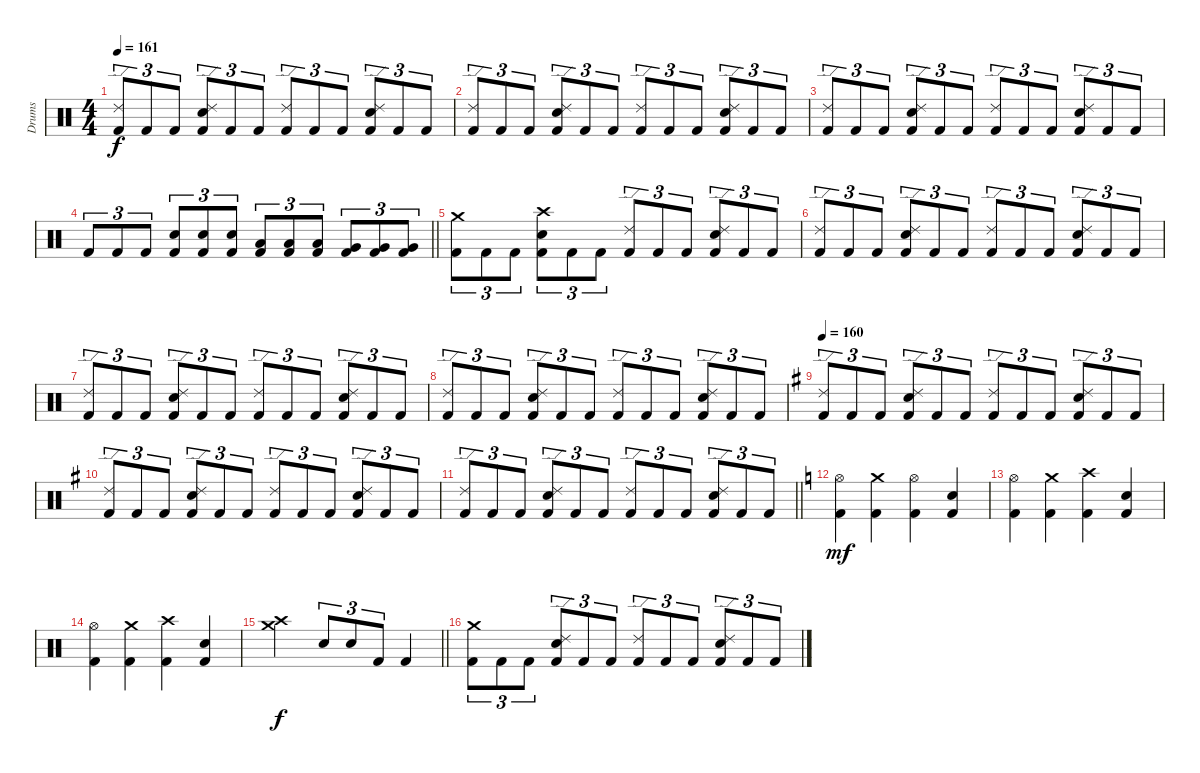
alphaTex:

\track ("Drums" "Drums") {instrument percussion}
\staff {score}
\articulation defaults
\ts (4 4)
\tempo 161
\clef neutral
\ks aminor
("Ride (edge) 2" "Kick (hit) 2").8{tu (3 2) dy f} "Kick (hit) 2".8{tu (3 2)} "Kick (hit) 2".8{tu (3 2)} ("Ride (edge) 2" "Snare (hit) 2" "Kick (hit) 2").8{tu (3 2)} "Kick (hit) 2".8{tu (3 2)} "Kick (hit) 2".8{tu (3 2)} ("Ride (edge) 2" "Kick (hit) 2").8{tu (3 2)} "Kick (hit) 2".8{tu (3 2)} "Kick (hit) 2".8{tu (3 2)} ("Ride (edge) 2" "Snare (hit) 2" "Kick (hit) 2").8{tu (3 2)} "Kick (hit) 2".8{tu (3 2)} "Kick (hit) 2".8{tu (3 2)} |
("Ride (edge) 2" "Kick (hit) 2").8{tu (3 2)} "Kick (hit) 2".8{tu (3 2)} "Kick (hit) 2".8{tu (3 2)} ("Ride (edge) 2" "Snare (hit) 2" "Kick (hit) 2").8{tu (3 2)} "Kick (hit) 2".8{tu (3 2)} "Kick (hit) 2".8{tu (3 2)} ("Ride (edge) 2" "Kick (hit) 2").8{tu (3 2)} "Kick (hit) 2".8{tu (3 2)} "Kick (hit) 2".8{tu (3 2)} ("Ride (edge) 2" "Snare (hit) 2" "Kick (hit) 2").8{tu (3 2)} "Kick (hit) 2".8{tu (3 2)} "Kick (hit) 2".8{tu (3 2)} |
("Ride (edge) 2" "Kick (hit) 2").8{tu (3 2)} "Kick (hit) 2".8{tu (3 2)} "Kick (hit) 2".8{tu (3 2)} ("Ride (edge) 2" "Snare (hit) 2" "Kick (hit) 2").8{tu (3 2)} "Kick (hit) 2".8{tu (3 2)} "Kick (hit) 2".8{tu (3 2)} ("Ride (edge) 2" "Kick (hit) 2").8{tu (3 2)} "Kick (hit) 2".8{tu (3 2)} "Kick (hit) 2".8{tu (3 2)} ("Ride (edge) 2" "Snare (hit) 2" "Kick (hit) 2").8{tu (3 2)} "Kick (hit) 2".8{tu (3 2)} "Kick (hit) 2".8{tu (3 2)} |
\barLineRight lightlight "Kick (hit) 2".8{tu (3 2)} "Kick (hit) 2".8{tu (3 2)} "Kick (hit) 2".8{tu (3 2)}
("Snare (hit) 2" "Kick (hit) 2").8{tu (3 2)} ("Snare (hit) 2" "Kick (hit) 2").8{tu (3 2)} ("Snare (hit) 2" "Kick (hit) 2").8{tu (3 2)} ("Low Tom (hit)" "Kick (hit) 2").8{tu (3 2)} ("Low Tom (hit)" "Kick (hit) 2").8{tu (3 2)} ("Low Tom (hit)" "Kick (hit) 2").8{tu (3 2)} ("Very Low Tom (hit)" "Kick (hit) 2").8{tu (3 2)} ("Very Low Tom (hit)" "Kick (hit) 2").8{tu (3 2)} ("Very Low Tom (hit)" "Kick (hit) 2").8{tu (3 2)} |
\ks c
("Crash medium (hit)" "Kick (hit) 2").8{tu (3 2)} "Kick (hit) 2".8{tu (3 2)} "Kick (hit) 2".8{tu (3 2)} ("Crash high (hit)" "Snare (hit) 2" "Kick (hit) 2").8{tu (3 2)} "Kick (hit) 2".8{tu (3 2)} "Kick (hit) 2".8{tu (3 2)} ("Ride (edge) 2" "Kick (hit) 2").8{tu (3 2)} "Kick (hit) 2".8{tu (3 2)} "Kick (hit) 2".8{tu (3 2)} ("Ride (edge) 2" "Snare (hit) 2" "Kick (hit) 2").8{tu (3 2)} "Kick (hit) 2".8{tu (3 2)} "Kick (hit) 2".8{tu (3 2)} |
("Ride (edge) 2" "Kick (hit) 2").8{tu (3 2)} "Kick (hit) 2".8{tu (3 2)} "Kick (hit) 2".8{tu (3 2)} ("Ride (edge) 2" "Snare (hit) 2" "Kick (hit) 2").8{tu (3 2)} "Kick (hit) 2".8{tu (3 2)} "Kick (hit) 2".8{tu (3 2)} ("Ride (edge) 2" "Kick (hit) 2").8{tu (3 2)} "Kick (hit) 2".8{tu (3 2)} "Kick (hit) 2".8{tu (3 2)} ("Ride (edge) 2" "Snare (hit) 2" "Kick (hit) 2").8{tu (3 2)} "Kick (hit) 2".8{tu (3 2)} "Kick (hit) 2".8{tu (3 2)} |
("Ride (edge) 2" "Kick (hit) 2").8{tu (3 2)} "Kick (hit) 2".8{tu (3 2)} "Kick (hit) 2".8{tu (3 2)} ("Ride (edge) 2" "Snare (hit) 2" "Kick (hit) 2").8{tu (3 2)} "Kick (hit) 2".8{tu (3 2)} "Kick (hit) 2".8{tu (3 2)} ("Ride (edge) 2" "Kick (hit) 2").8{tu (3 2)} "Kick (hit) 2".8{tu (3 2)} "Kick (hit) 2".8{tu (3 2)} ("Ride (edge) 2" "Snare (hit) 2" "Kick (hit) 2").8{tu (3 2)} "Kick (hit) 2".8{tu (3 2)} "Kick (hit) 2".8{tu (3 2)} |
("Ride (edge) 2" "Kick (hit) 2").8{tu (3 2)} "Kick (hit) 2".8{tu (3 2)} "Kick (hit) 2".8{tu (3 2)} ("Ride (edge) 2" "Snare (hit) 2" "Kick (hit) 2").8{tu (3 2)} "Kick (hit) 2".8{tu (3 2)} "Kick (hit) 2".8{tu (3 2)} ("Ride (edge) 2" "Kick (hit) 2").8{tu (3 2)} "Kick (hit) 2".8{tu (3 2)} "Kick (hit) 2".8{tu (3 2)} ("Ride (edge) 2" "Snare (hit) 2" "Kick (hit) 2").8{tu (3 2)} "Kick (hit) 2".8{tu (3 2)} "Kick (hit) 2".8{tu (3 2)} |
\tempo 160
\ks eminor
("Ride (edge) 2" "Kick (hit) 2").8{tu (3 2)} "Kick (hit) 2".8{tu (3 2)} "Kick (hit) 2".8{tu (3 2)} ("Ride (edge) 2" "Snare (hit) 2" "Kick (hit) 2").8{tu (3 2)} "Kick (hit) 2".8{tu (3 2)} "Kick (hit) 2".8{tu (3 2)} ("Ride (edge) 2" "Kick (hit) 2").8{tu (3 2)} "Kick (hit) 2".8{tu (3 2)} "Kick (hit) 2".8{tu (3 2)} ("Ride (edge) 2" "Snare (hit) 2" "Kick (hit) 2").8{tu (3 2)} "Kick (hit) 2".8{tu (3 2)} "Kick (hit) 2".8{tu (3 2)} |
("Ride (edge) 2" "Kick (hit) 2").8{tu (3 2)} "Kick (hit) 2".8{tu (3 2)} "Kick (hit) 2".8{tu (3 2)} ("Ride (edge) 2" "Snare (hit) 2" "Kick (hit) 2").8{tu (3 2)} "Kick (hit) 2".8{tu (3 2)} "Kick (hit) 2".8{tu (3 2)} ("Ride (edge) 2" "Kick (hit) 2").8{tu (3 2)} "Kick (hit) 2".8{tu (3 2)} "Kick (hit) 2".8{tu (3 2)} ("Ride (edge) 2" "Snare (hit) 2" "Kick (hit) 2").8{tu (3 2)} "Kick (hit) 2".8{tu (3 2)} "Kick (hit) 2".8{tu (3 2)} |
\barLineRight lightlight
("Ride (edge) 2" "Kick (hit) 2").8{tu (3 2)} "Kick (hit) 2".8{tu (3 2)} "Kick (hit) 2".8{tu (3 2)} ("Ride (edge) 2" "Snare (hit) 2" "Kick (hit) 2").8{tu (3 2)} "Kick (hit) 2".8{tu (3 2)} "Kick (hit) 2".8{tu (3 2)} ("Ride (edge) 2" "Kick (hit) 2").8{tu (3 2)} "Kick (hit) 2".8{tu (3 2)} "Kick (hit) 2".8{tu (3 2)} ("Ride (edge) 2" "Snare (hit) 2" "Kick (hit) 2").8{tu (3 2)} "Kick (hit) 2".8{tu (3 2)} "Kick (hit) 2".8{tu (3 2)} |
\ks aminor
("Hi-Hat (open)" "Kick (hit) 2").4{dy mf} ("Crash medium (hit)" "Kick (hit) 2").4 ("Hi-Hat (open)" "Kick (hit) 2").4 ("Snare (hit) 2" "Kick (hit) 2").4 |
("Hi-Hat (open)" "Kick (hit) 2").4 ("Crash medium (hit)" "Kick (hit) 2").4 ("Crash high (hit)" "Kick (hit) 2").4 ("Snare (hit) 2" "Kick (hit) 2").4 |
("Hi-Hat (open)" "Kick (hit) 2").4 ("Crash medium (hit)" "Kick (hit) 2").4 ("Crash high (hit)" "Kick (hit) 2").4 ("Snare (hit) 2" "Kick (hit) 2").4 |
\barLineRight lightlight
("Crash high (hit)" "Crash medium (hit)").2{dy f} "Snare (hit) 2".8{tu (3 2)} "Snare (hit) 2".8{tu (3 2)} "Kick (hit) 2".8{tu (3 2)} "Kick (hit) 2".4 |
\section ("" "")
\ks c
("Crash medium (hit)" "Kick (hit) 2").8{tu (3 2)} "Kick (hit) 2".8{tu (3 2)} "Kick (hit) 2".8{tu (3 2)} ("Ride (edge) 2" "Snare (hit) 2" "Kick (hit) 2").8{tu (3 2)} "Kick (hit) 2".8{tu (3 2)} "Kick (hit) 2".8{tu (3 2)} ("Ride (edge) 2" "Kick (hit) 2").8{tu (3 2)} "Kick (hit) 2".8{tu (3 2)} "Kick (hit) 2".8{tu (3 2)} ("Ride (edge) 2" "Snare (hit) 2" "Kick (hit) 2").8{tu (3 2)} "Kick (hit) 2".8{tu (3 2)} "Kick (hit) 2".8{tu (3 2)}
